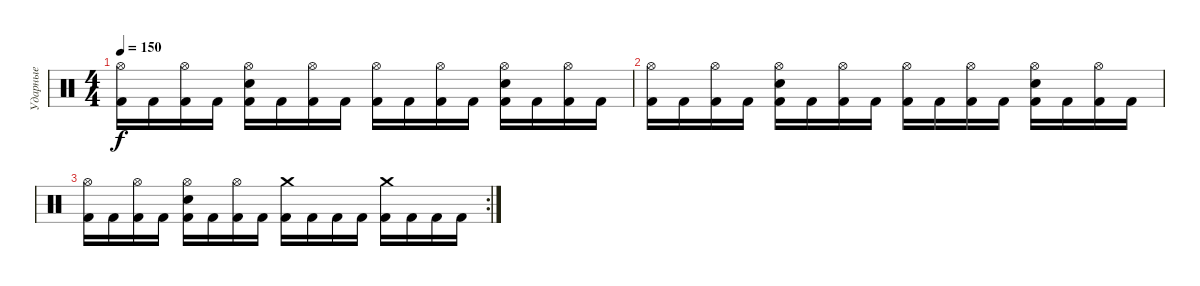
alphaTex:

\track ("Ударные" "Ударные") {instrument percussion}
\staff {score}
\articulation defaults
\ts (4 4)
\tempo 150
\clef neutral
\ks c
("Hi-Hat (open)" "Kick (hit) 2").16{dy f} "Kick (hit) 2".16 ("Hi-Hat (open)" "Kick (hit) 2").16 "Kick (hit) 2".16 ("Hi-Hat (open)" "Snare (hit) 2" "Kick (hit) 2").16 "Kick (hit) 2".16 ("Hi-Hat (open)" "Kick (hit) 2").16 "Kick (hit) 2".16 ("Hi-Hat (open)" "Kick (hit) 2").16 "Kick (hit) 2".16 ("Hi-Hat (open)" "Kick (hit) 2").16 "Kick (hit) 2".16 ("Hi-Hat (open)" "Snare (hit) 2" "Kick (hit) 2").16 "Kick (hit) 2".16 ("Hi-Hat (open)" "Kick (hit) 2").16 "Kick (hit) 2".16 |
("Hi-Hat (open)" "Kick (hit) 2").16 "Kick (hit) 2".16 ("Hi-Hat (open)" "Kick (hit) 2").16 "Kick (hit) 2".16 ("Hi-Hat (open)" "Snare (hit) 2" "Kick (hit) 2").16 "Kick (hit) 2".16 ("Hi-Hat (open)" "Kick (hit) 2").16 "Kick (hit) 2".16 ("Hi-Hat (open)" "Kick (hit) 2").16 "Kick (hit) 2".16 ("Hi-Hat (open)" "Kick (hit) 2").16 "Kick (hit) 2".16 ("Hi-Hat (open)" "Snare (hit) 2" "Kick (hit) 2").16 "Kick (hit) 2".16 ("Hi-Hat (open)" "Kick (hit) 2").16 "Kick (hit) 2".16 |
\rc 2
("Hi-Hat (open)" "Kick (hit) 2").16 "Kick (hit) 2".16 ("Hi-Hat (open)" "Kick (hit) 2").16 "Kick (hit) 2".16 ("Hi-Hat (open)" "Snare (hit) 2" "Kick (hit) 2").16 "Kick (hit) 2".16 ("Hi-Hat (open)" "Kick (hit) 2").16 "Kick (hit) 2".16 ("Crash medium (hit)" "Kick (hit) 2").16 "Kick (hit) 2".16 "Kick (hit) 2".16 "Kick (hit) 2".16 ("Crash medium (hit)" "Kick (hit) 2").16 "Kick (hit) 2".16 "Kick (hit) 2".16 "Kick (hit) 2".16
